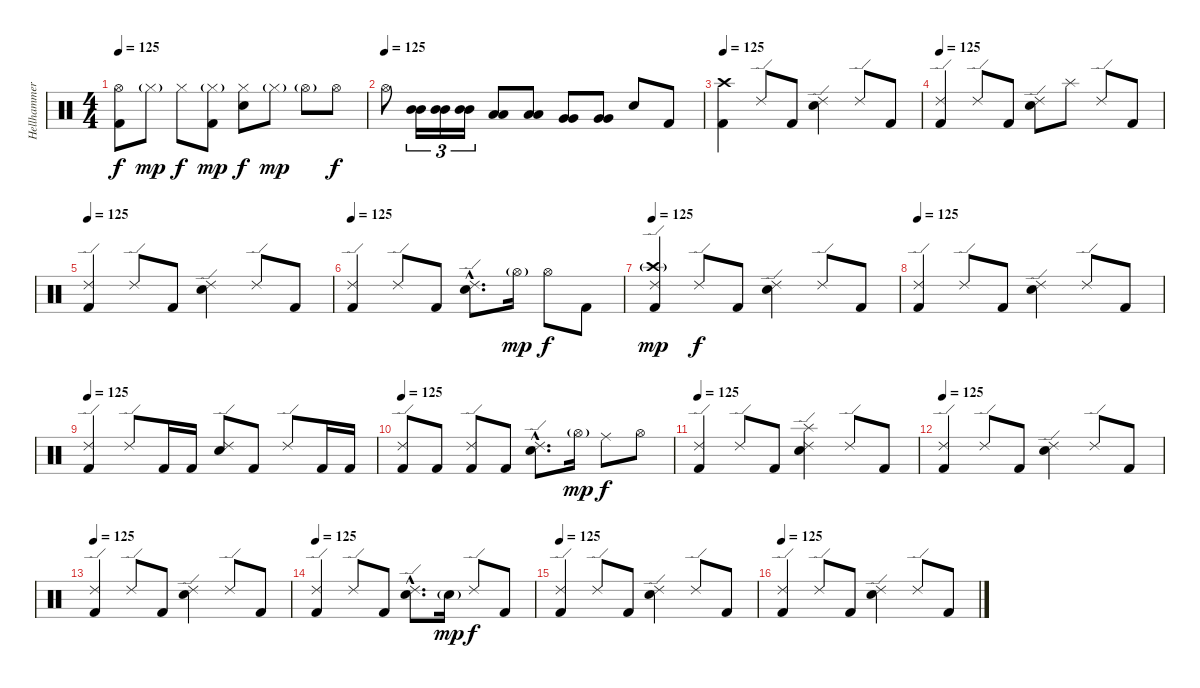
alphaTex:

\track ("Hellhammer" "Hellhammer") {instrument percussion}
\staff {score}
\articulation defaults
\ts (4 4)
\tempo 125
\clef neutral
\ks c
("Kick (hit) 2" "Hi-Hat (open)").8{dy f} "Hi-Hat (closed)"{g}.8{dy mp} "Hi-Hat (closed)".8{dy f} ("Kick (hit) 2" "Hi-Hat (closed)"{g}).8{dy mp} ("Electric Snare (hit)" "Hi-Hat (closed)").8{dy f} "Hi-Hat (closed)"{g}.8{dy mp} "Hi-Hat (open)"{g}.8 "Hi-Hat (open)".8{dy f} |
\tempo (125)
"Hi-Hat (open)".8 ("Mid Tom (hit)" "Mid Tom (hit)").16{tu (3 2)} ("Mid Tom (hit)" "Mid Tom (hit)").16{tu (3 2)} ("Mid Tom (hit)" "Mid Tom (hit)").16{tu (3 2)} ("Low Tom (hit)" "Low Tom (hit)").8 ("Low Tom (hit)" "Low Tom (hit)").8 ("Very Low Tom (hit)" "Very Low Tom (hit)").8 ("Very Low Tom (hit)" "Very Low Tom (hit)").8 "Electric Snare (hit)".8 "Kick (hit) 2".8 |
\tempo 125
("Kick (hit) 2" "Crash high (hit)").4 "Ride (edge) 2".8 "Kick (hit) 2".8 ("Electric Snare (hit)" "Ride (edge) 2").4 "Ride (edge) 2".8 "Kick (hit) 2".8 |
\tempo 125
("Kick (hit) 2" "Ride (edge) 2").4 "Ride (edge) 2".8 "Kick (hit) 2".8 ("Electric Snare (hit)" "Ride (edge) 2").8 "Splash (hit)".8 "Ride (edge) 2".8 "Kick (hit) 2".8 |
\tempo 125
("Kick (hit) 2" "Ride (edge) 2").4 "Ride (edge) 2".8 "Kick (hit) 2".8 ("Electric Snare (hit)" "Ride (edge) 2").4 "Ride (edge) 2".8 "Kick (hit) 2".8 |
\tempo 125
("Kick (hit) 2" "Ride (edge) 2").4 "Ride (edge) 2".8 "Kick (hit) 2".8 ("Electric Snare (hit)"{hac} "Ride (edge) 2"{hac}).8{d} "Hi-Hat (open)"{g}.16{dy mp} "Hi-Hat (open)".8{dy f} "Kick (hit) 2".8 |
\tempo 125
("Kick (hit) 2" "Ride (edge) 2" "Crash high (hit)"{g}).4{dy mp} "Ride (edge) 2".8{dy f} "Kick (hit) 2".8 ("Electric Snare (hit)" "Ride (edge) 2").4 "Ride (edge) 2".8 "Kick (hit) 2".8 |
\tempo 125
("Kick (hit) 2" "Ride (edge) 2").4 "Ride (edge) 2".8 "Kick (hit) 2".8 ("Electric Snare (hit)" "Ride (edge) 2").4 "Ride (edge) 2".8 "Kick (hit) 2".8 |
\tempo 125
("Kick (hit) 2" "Ride (edge) 2").4 "Ride (edge) 2".8 "Kick (hit) 2".16 "Kick (hit) 2".16 ("Electric Snare (hit)" "Ride (edge) 2").8 "Kick (hit) 2".8 "Ride (edge) 2".8 "Kick (hit) 2".16 "Kick (hit) 2".16 |
\tempo 125
("Kick (hit) 2" "Ride (edge) 2").8 "Kick (hit) 2".8 ("Kick (hit) 2" "Ride (edge) 2").8 "Kick (hit) 2".8 ("Electric Snare (hit)"{hac} "Ride (edge) 2"{hac}).8{d} "Hi-Hat (open)"{g}.16{dy mp} "Ride (middle)".8{dy f} "Hi-Hat (open)".8 |
\tempo 125
("Kick (hit) 2" "Ride (edge) 2").4 "Ride (edge) 2".8 "Kick (hit) 2".8 ("Electric Snare (hit)" "Ride (edge) 2" "Splash (hit)").4 "Ride (edge) 2".8 "Kick (hit) 2".8 |
\tempo 125
("Kick (hit) 2" "Ride (edge) 2").4 "Ride (edge) 2".8 "Kick (hit) 2".8 ("Electric Snare (hit)" "Ride (edge) 2").4 "Ride (edge) 2".8 "Kick (hit) 2".8 |
\tempo 125
("Kick (hit) 2" "Ride (edge) 2").4 "Ride (edge) 2".8 "Kick (hit) 2".8 ("Electric Snare (hit)" "Ride (edge) 2").4 "Ride (edge) 2".8 "Kick (hit) 2".8 |
\tempo 125
("Kick (hit) 2" "Ride (edge) 2").4 "Ride (edge) 2".8 "Kick (hit) 2".8 ("Electric Snare (hit)"{hac} "Ride (edge) 2"{hac}).8{d} "Electric Snare (hit)"{g}.16{dy mp} "Ride (edge) 2".8{dy f} "Kick (hit) 2".8 |
\tempo 125
("Kick (hit) 2" "Ride (edge) 2").4 "Ride (edge) 2".8 "Kick (hit) 2".8 ("Electric Snare (hit)" "Ride (edge) 2").4 "Ride (edge) 2".8 "Kick (hit) 2".8 |
\tempo 125
("Kick (hit) 2" "Ride (edge) 2").4 "Ride (edge) 2".8 "Kick (hit) 2".8 ("Electric Snare (hit)" "Ride (edge) 2").4 "Ride (edge) 2".8 "Kick (hit) 2".8
